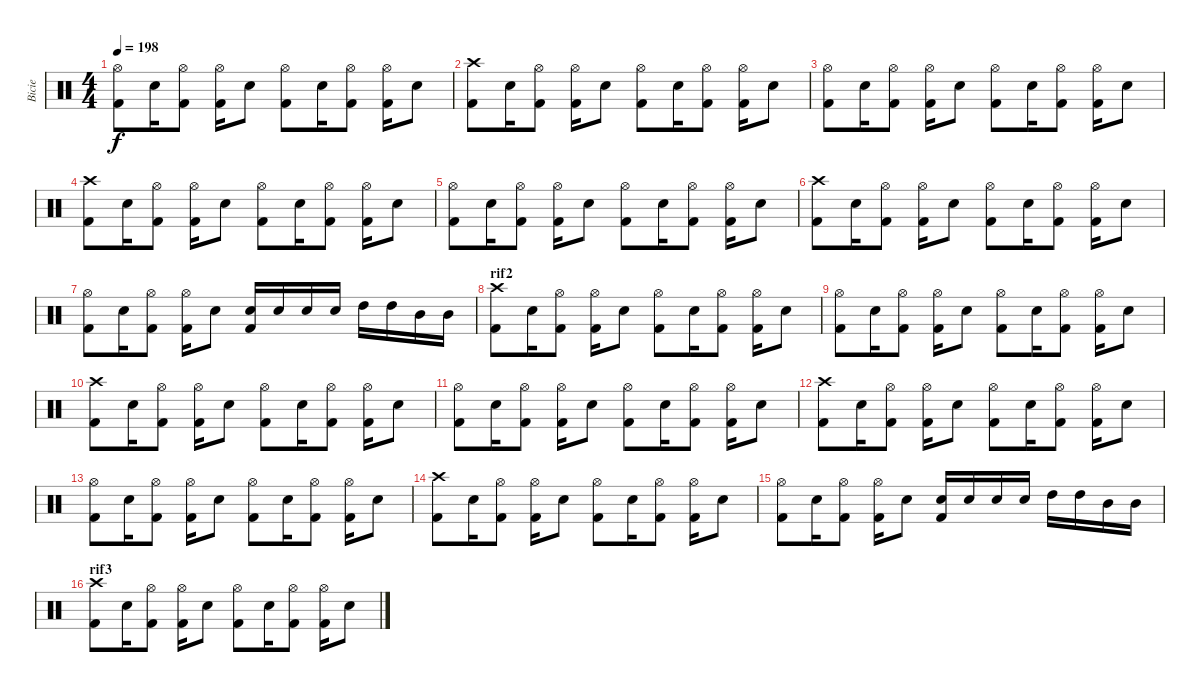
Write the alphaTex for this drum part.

\track ("Bicie" "Bicie") {instrument percussion}
\staff {score}
\articulation defaults
\ts (4 4)
\tempo 198
\clef neutral
\ks c
("Hi-Hat (open)" "Kick (hit) 2").8{dy f} "Electric Snare (hit)".16 ("Hi-Hat (open)" "Kick (hit) 2").8 ("Hi-Hat (open)" "Kick (hit) 2").16 "Electric Snare (hit)".8 ("Hi-Hat (open)" "Kick (hit) 2").8 "Electric Snare (hit)".16 ("Hi-Hat (open)" "Kick (hit) 2").8 ("Hi-Hat (open)" "Kick (hit) 2").16 "Electric Snare (hit)".8 |
("Crash high (hit)" "Kick (hit) 2").8 "Electric Snare (hit)".16 ("Hi-Hat (open)" "Kick (hit) 2").8 ("Hi-Hat (open)" "Kick (hit) 2").16 "Electric Snare (hit)".8 ("Hi-Hat (open)" "Kick (hit) 2").8 "Electric Snare (hit)".16 ("Hi-Hat (open)" "Kick (hit) 2").8 ("Hi-Hat (open)" "Kick (hit) 2").16 "Electric Snare (hit)".8 |
("Hi-Hat (open)" "Kick (hit) 2").8 "Electric Snare (hit)".16 ("Hi-Hat (open)" "Kick (hit) 2").8 ("Hi-Hat (open)" "Kick (hit) 2").16 "Electric Snare (hit)".8 ("Hi-Hat (open)" "Kick (hit) 2").8 "Electric Snare (hit)".16 ("Hi-Hat (open)" "Kick (hit) 2").8 ("Hi-Hat (open)" "Kick (hit) 2").16 "Electric Snare (hit)".8 |
("Crash high (hit)" "Kick (hit) 2").8 "Electric Snare (hit)".16 ("Hi-Hat (open)" "Kick (hit) 2").8 ("Hi-Hat (open)" "Kick (hit) 2").16 "Electric Snare (hit)".8 ("Hi-Hat (open)" "Kick (hit) 2").8 "Electric Snare (hit)".16 ("Hi-Hat (open)" "Kick (hit) 2").8 ("Hi-Hat (open)" "Kick (hit) 2").16 "Electric Snare (hit)".8 |
("Hi-Hat (open)" "Kick (hit) 2").8 "Electric Snare (hit)".16 ("Hi-Hat (open)" "Kick (hit) 2").8 ("Hi-Hat (open)" "Kick (hit) 2").16 "Electric Snare (hit)".8 ("Hi-Hat (open)" "Kick (hit) 2").8 "Electric Snare (hit)".16 ("Hi-Hat (open)" "Kick (hit) 2").8 ("Hi-Hat (open)" "Kick (hit) 2").16 "Electric Snare (hit)".8 |
("Crash high (hit)" "Kick (hit) 2").8 "Electric Snare (hit)".16 ("Hi-Hat (open)" "Kick (hit) 2").8 ("Hi-Hat (open)" "Kick (hit) 2").16 "Electric Snare (hit)".8 ("Hi-Hat (open)" "Kick (hit) 2").8 "Electric Snare (hit)".16 ("Hi-Hat (open)" "Kick (hit) 2").8 ("Hi-Hat (open)" "Kick (hit) 2").16 "Electric Snare (hit)".8 |
("Hi-Hat (open)" "Kick (hit) 2").8 "Electric Snare (hit)".16 ("Hi-Hat (open)" "Kick (hit) 2").8 ("Hi-Hat (open)" "Kick (hit) 2").16 "Electric Snare (hit)".8 ("Electric Snare (hit)" "Kick (hit) 2").16 "Electric Snare (hit)".16 "Electric Snare (hit)".16 "Electric Snare (hit)".16 "High Tom (hit)".16 "High Tom (hit)".16 "Mid Tom (hit)".16 "Mid Tom (hit)".16 |
\section ("" "rif2")
("Crash high (hit)" "Kick (hit) 2").8 "Electric Snare (hit)".16 ("Hi-Hat (open)" "Kick (hit) 2").8 ("Hi-Hat (open)" "Kick (hit) 2").16 "Electric Snare (hit)".8 ("Hi-Hat (open)" "Kick (hit) 2").8 "Electric Snare (hit)".16 ("Hi-Hat (open)" "Kick (hit) 2").8 ("Hi-Hat (open)" "Kick (hit) 2").16 "Electric Snare (hit)".8 |
("Hi-Hat (open)" "Kick (hit) 2").8 "Electric Snare (hit)".16 ("Hi-Hat (open)" "Kick (hit) 2").8 ("Hi-Hat (open)" "Kick (hit) 2").16 "Electric Snare (hit)".8 ("Hi-Hat (open)" "Kick (hit) 2").8 "Electric Snare (hit)".16 ("Hi-Hat (open)" "Kick (hit) 2").8 ("Hi-Hat (open)" "Kick (hit) 2").16 "Electric Snare (hit)".8 |
("Crash high (hit)" "Kick (hit) 2").8 "Electric Snare (hit)".16 ("Hi-Hat (open)" "Kick (hit) 2").8 ("Hi-Hat (open)" "Kick (hit) 2").16 "Electric Snare (hit)".8 ("Hi-Hat (open)" "Kick (hit) 2").8 "Electric Snare (hit)".16 ("Hi-Hat (open)" "Kick (hit) 2").8 ("Hi-Hat (open)" "Kick (hit) 2").16 "Electric Snare (hit)".8 |
("Hi-Hat (open)" "Kick (hit) 2").8 "Electric Snare (hit)".16 ("Hi-Hat (open)" "Kick (hit) 2").8 ("Hi-Hat (open)" "Kick (hit) 2").16 "Electric Snare (hit)".8 ("Hi-Hat (open)" "Kick (hit) 2").8 "Electric Snare (hit)".16 ("Hi-Hat (open)" "Kick (hit) 2").8 ("Hi-Hat (open)" "Kick (hit) 2").16 "Electric Snare (hit)".8 |
("Crash high (hit)" "Kick (hit) 2").8 "Electric Snare (hit)".16 ("Hi-Hat (open)" "Kick (hit) 2").8 ("Hi-Hat (open)" "Kick (hit) 2").16 "Electric Snare (hit)".8 ("Hi-Hat (open)" "Kick (hit) 2").8 "Electric Snare (hit)".16 ("Hi-Hat (open)" "Kick (hit) 2").8 ("Hi-Hat (open)" "Kick (hit) 2").16 "Electric Snare (hit)".8 |
("Hi-Hat (open)" "Kick (hit) 2").8 "Electric Snare (hit)".16 ("Hi-Hat (open)" "Kick (hit) 2").8 ("Hi-Hat (open)" "Kick (hit) 2").16 "Electric Snare (hit)".8 ("Hi-Hat (open)" "Kick (hit) 2").8 "Electric Snare (hit)".16 ("Hi-Hat (open)" "Kick (hit) 2").8 ("Hi-Hat (open)" "Kick (hit) 2").16 "Electric Snare (hit)".8 |
("Crash high (hit)" "Kick (hit) 2").8 "Electric Snare (hit)".16 ("Hi-Hat (open)" "Kick (hit) 2").8 ("Hi-Hat (open)" "Kick (hit) 2").16 "Electric Snare (hit)".8 ("Hi-Hat (open)" "Kick (hit) 2").8 "Electric Snare (hit)".16 ("Hi-Hat (open)" "Kick (hit) 2").8 ("Hi-Hat (open)" "Kick (hit) 2").16 "Electric Snare (hit)".8 |
("Hi-Hat (open)" "Kick (hit) 2").8 "Electric Snare (hit)".16 ("Hi-Hat (open)" "Kick (hit) 2").8 ("Hi-Hat (open)" "Kick (hit) 2").16 "Electric Snare (hit)".8 ("Electric Snare (hit)" "Kick (hit) 2").16 "Electric Snare (hit)".16 "Electric Snare (hit)".16 "Electric Snare (hit)".16 "High Tom (hit)".16 "High Tom (hit)".16 "Mid Tom (hit)".16 "Mid Tom (hit)".16 |
\section ("" "rif3")
("Crash high (hit)" "Kick (hit) 2").8 "Electric Snare (hit)".16 ("Hi-Hat (open)" "Kick (hit) 2").8 ("Hi-Hat (open)" "Kick (hit) 2").16 "Electric Snare (hit)".8 ("Hi-Hat (open)" "Kick (hit) 2").8 "Electric Snare (hit)".16 ("Hi-Hat (open)" "Kick (hit) 2").8 ("Hi-Hat (open)" "Kick (hit) 2").16 "Electric Snare (hit)".8
